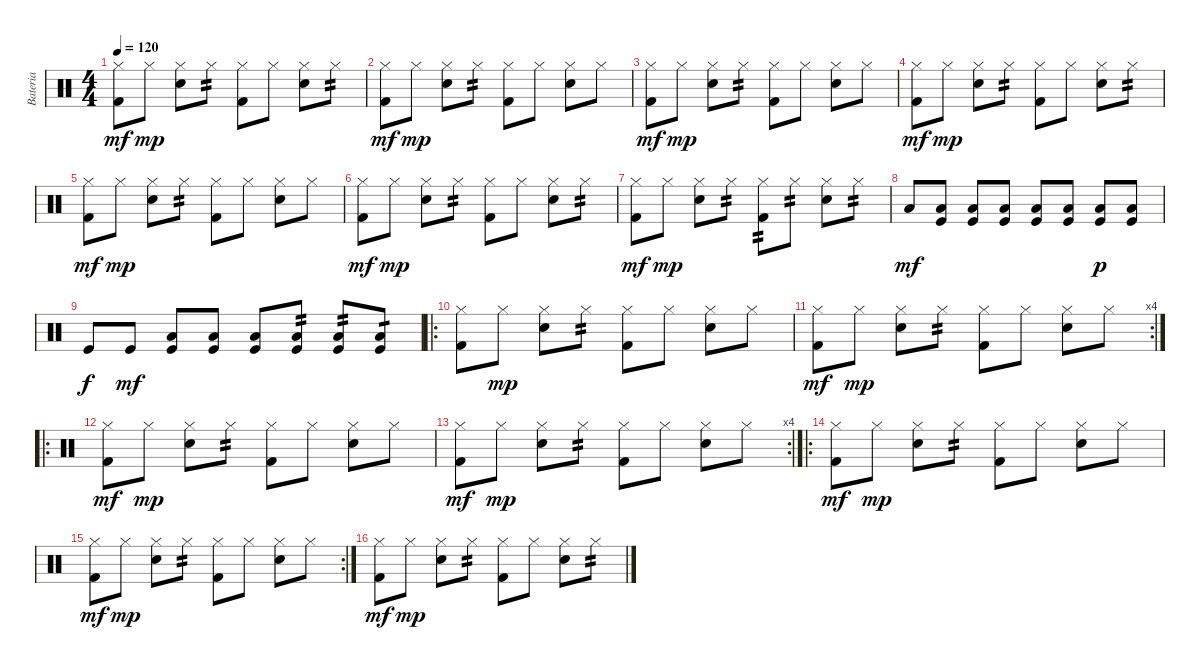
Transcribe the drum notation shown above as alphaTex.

\track ("Bateria" "Bateria") {instrument percussion}
\staff {score}
\articulation defaults
\ts (4 4)
\tempo 120
\clef neutral
\ks c
("Hi-Hat (closed)" "Kick (hit) 2").8{dy mf} "Hi-Hat (closed)".8{dy mp} ("Hi-Hat (closed)" "Electric Snare (hit)").8 "Hi-Hat (closed)".8{tp 2} ("Hi-Hat (closed)" "Kick (hit) 2").8 "Hi-Hat (closed)".8 ("Hi-Hat (closed)" "Electric Snare (hit)").8 "Hi-Hat (closed)".8{tp 2} |
("Hi-Hat (closed)" "Kick (hit) 2").8{dy mf} "Hi-Hat (closed)".8{dy mp} ("Hi-Hat (closed)" "Electric Snare (hit)").8 "Hi-Hat (closed)".8{tp 2} ("Hi-Hat (closed)" "Kick (hit) 2").8 "Hi-Hat (closed)".8 ("Hi-Hat (closed)" "Electric Snare (hit)").8 "Hi-Hat (closed)".8 |
("Hi-Hat (closed)" "Kick (hit) 2").8{dy mf} "Hi-Hat (closed)".8{dy mp} ("Hi-Hat (closed)" "Electric Snare (hit)").8 "Hi-Hat (closed)".8{tp 2} ("Hi-Hat (closed)" "Kick (hit) 2").8 "Hi-Hat (closed)".8 ("Hi-Hat (closed)" "Electric Snare (hit)").8 "Hi-Hat (closed)".8 |
("Hi-Hat (closed)" "Kick (hit) 2").8{dy mf} "Hi-Hat (closed)".8{dy mp} ("Hi-Hat (closed)" "Electric Snare (hit)").8 "Hi-Hat (closed)".8{tp 2} ("Hi-Hat (closed)" "Kick (hit) 2").8 "Hi-Hat (closed)".8 ("Hi-Hat (closed)" "Electric Snare (hit)").8 "Hi-Hat (closed)".8{tp 2} |
("Hi-Hat (closed)" "Kick (hit) 2").8{dy mf} "Hi-Hat (closed)".8{dy mp} ("Hi-Hat (closed)" "Electric Snare (hit)").8 "Hi-Hat (closed)".8{tp 2} ("Hi-Hat (closed)" "Kick (hit) 2").8 "Hi-Hat (closed)".8 ("Hi-Hat (closed)" "Electric Snare (hit)").8 "Hi-Hat (closed)".8 |
("Hi-Hat (closed)" "Kick (hit) 2").8{dy mf} "Hi-Hat (closed)".8{dy mp} ("Hi-Hat (closed)" "Electric Snare (hit)").8 "Hi-Hat (closed)".8{tp 2} ("Hi-Hat (closed)" "Kick (hit) 2").8 "Hi-Hat (closed)".8 ("Hi-Hat (closed)" "Electric Snare (hit)").8 "Hi-Hat (closed)".8{tp 2} |
("Hi-Hat (closed)" "Kick (hit) 2").8{dy mf} "Hi-Hat (closed)".8{dy mp} ("Hi-Hat (closed)" "Electric Snare (hit)").8 "Hi-Hat (closed)".8{tp 2} ("Hi-Hat (closed)" "Kick (hit) 2").8{tp 2} "Hi-Hat (closed)".8{tp 2} ("Hi-Hat (closed)" "Electric Snare (hit)").8 "Hi-Hat (closed)".8{tp 2} |
"Low Floor Tom (hit)".8{dy mf} ("Low Floor Tom (hit)" "Kick (hit)").8 ("Low Floor Tom (hit)" "Kick (hit)").8 ("Low Floor Tom (hit)" "Kick (hit)").8 ("Low Floor Tom (hit)" "Kick (hit)").8 ("Low Floor Tom (hit)" "Kick (hit)").8 ("Low Floor Tom (hit)" "Kick (hit)").8{dy p} ("Low Floor Tom (hit)" "Kick (hit)").8 |
"Kick (hit)".8{dy f} "Kick (hit)".8{dy mf} ("Low Floor Tom (hit)" "Kick (hit)").8 ("Low Floor Tom (hit)" "Kick (hit)").8 ("Low Floor Tom (hit)" "Kick (hit)").8 ("Low Floor Tom (hit)" "Kick (hit)").8{tp 2} ("Low Floor Tom (hit)" "Kick (hit)").8{tp 2} ("Low Floor Tom (hit)" "Kick (hit)").8{tp 1} |
\ro
("Hi-Hat (closed)" "Kick (hit) 2").8 "Hi-Hat (closed)".8{dy mp} ("Hi-Hat (closed)" "Electric Snare (hit)").8 "Hi-Hat (closed)".8{tp 2} ("Hi-Hat (closed)" "Kick (hit) 2").8 "Hi-Hat (closed)".8 ("Hi-Hat (closed)" "Electric Snare (hit)").8 "Hi-Hat (closed)".8 |
\rc 4
("Hi-Hat (closed)" "Kick (hit) 2").8{dy mf} "Hi-Hat (closed)".8{dy mp} ("Hi-Hat (closed)" "Electric Snare (hit)").8 "Hi-Hat (closed)".8{tp 2} ("Hi-Hat (closed)" "Kick (hit) 2").8 "Hi-Hat (closed)".8 ("Hi-Hat (closed)" "Electric Snare (hit)").8 "Hi-Hat (closed)".8 |
\ro
("Hi-Hat (closed)" "Kick (hit) 2").8{dy mf} "Hi-Hat (closed)".8{dy mp} ("Hi-Hat (closed)" "Electric Snare (hit)").8 "Hi-Hat (closed)".8{tp 2} ("Hi-Hat (closed)" "Kick (hit) 2").8 "Hi-Hat (closed)".8 ("Hi-Hat (closed)" "Electric Snare (hit)").8 "Hi-Hat (closed)".8 |
\rc 4
("Hi-Hat (closed)" "Kick (hit) 2").8{dy mf} "Hi-Hat (closed)".8{dy mp} ("Hi-Hat (closed)" "Electric Snare (hit)").8 "Hi-Hat (closed)".8{tp 2} ("Hi-Hat (closed)" "Kick (hit) 2").8 "Hi-Hat (closed)".8 ("Hi-Hat (closed)" "Electric Snare (hit)").8 "Hi-Hat (closed)".8 |
\ro
("Hi-Hat (closed)" "Kick (hit) 2").8{dy mf} "Hi-Hat (closed)".8{dy mp} ("Hi-Hat (closed)" "Electric Snare (hit)").8 "Hi-Hat (closed)".8{tp 2} ("Hi-Hat (closed)" "Kick (hit) 2").8 "Hi-Hat (closed)".8 ("Hi-Hat (closed)" "Electric Snare (hit)").8 "Hi-Hat (closed)".8 |
\rc 2
("Hi-Hat (closed)" "Kick (hit) 2").8{dy mf} "Hi-Hat (closed)".8{dy mp} ("Hi-Hat (closed)" "Electric Snare (hit)").8 "Hi-Hat (closed)".8{tp 2} ("Hi-Hat (closed)" "Kick (hit) 2").8 "Hi-Hat (closed)".8 ("Hi-Hat (closed)" "Electric Snare (hit)").8 "Hi-Hat (closed)".8 |
("Hi-Hat (closed)" "Kick (hit) 2").8{dy mf} "Hi-Hat (closed)".8{dy mp} ("Hi-Hat (closed)" "Electric Snare (hit)").8 "Hi-Hat (closed)".8{tp 2} ("Hi-Hat (closed)" "Kick (hit) 2").8 "Hi-Hat (closed)".8 ("Hi-Hat (closed)" "Electric Snare (hit)").8 "Hi-Hat (closed)".8{tp 2}
